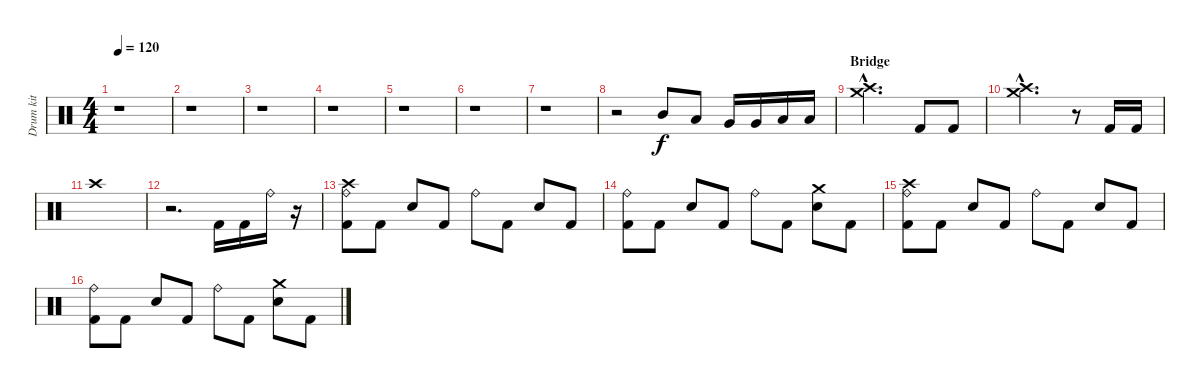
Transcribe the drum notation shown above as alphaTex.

\track ("Drum kit" "Drum kit") {instrument percussion}
\staff {score}
\articulation defaults
\ts (4 4)
\tempo 120
\clef neutral
\ks c
r.1{dy f} |
r.1 |
r.1 |
r.1 |
r.1 |
r.1 |
r.1 |
r.2 "Mid Tom (hit)".8{volume 13} "Low Tom (hit)".8 "Very Low Tom (hit)".16 "Very Low Tom (hit)".16 "Low Floor Tom (hit)".16 "Low Floor Tom (hit)".16 |
\section ("" "Bridge")
("Crash medium (hit)"{hac} "Crash high (hit)"{hac}).2{d} "Kick (hit) 2".8 "Kick (hit) 2".8 |
("Crash medium (hit)"{hac} "Crash high (hit)"{hac}).2{d} r.8 "Kick (hit) 2".16 "Kick (hit) 2".16 |
"Crash high (hit)".1 |
r.2{d} "Kick (hit) 2".16 "Kick (hit) 2".16 "Ride (bell)".16 r.16 |
("Crash high (hit)" "Kick (hit) 2" "Ride (bell)").8 "Kick (hit) 2".8 "Electric Snare (hit)".8 "Kick (hit) 2".8 "Ride (bell)".8 "Kick (hit) 2".8 "Electric Snare (hit)".8 "Kick (hit) 2".8 |
("Kick (hit) 2" "Ride (bell)").8 "Kick (hit) 2".8 "Electric Snare (hit)".8 "Kick (hit) 2".8 "Ride (bell)".8 "Kick (hit) 2".8 ("Crash medium (hit)" "Electric Snare (hit)").8 "Kick (hit) 2".8 |
("Crash high (hit)" "Kick (hit) 2" "Ride (bell)").8 "Kick (hit) 2".8 "Electric Snare (hit)".8 "Kick (hit) 2".8 "Ride (bell)".8 "Kick (hit) 2".8 "Electric Snare (hit)".8 "Kick (hit) 2".8 |
("Kick (hit) 2" "Ride (bell)").8 "Kick (hit) 2".8 "Electric Snare (hit)".8 "Kick (hit) 2".8 "Ride (bell)".8 "Kick (hit) 2".8 ("Crash medium (hit)" "Electric Snare (hit)").8 "Kick (hit) 2".8
